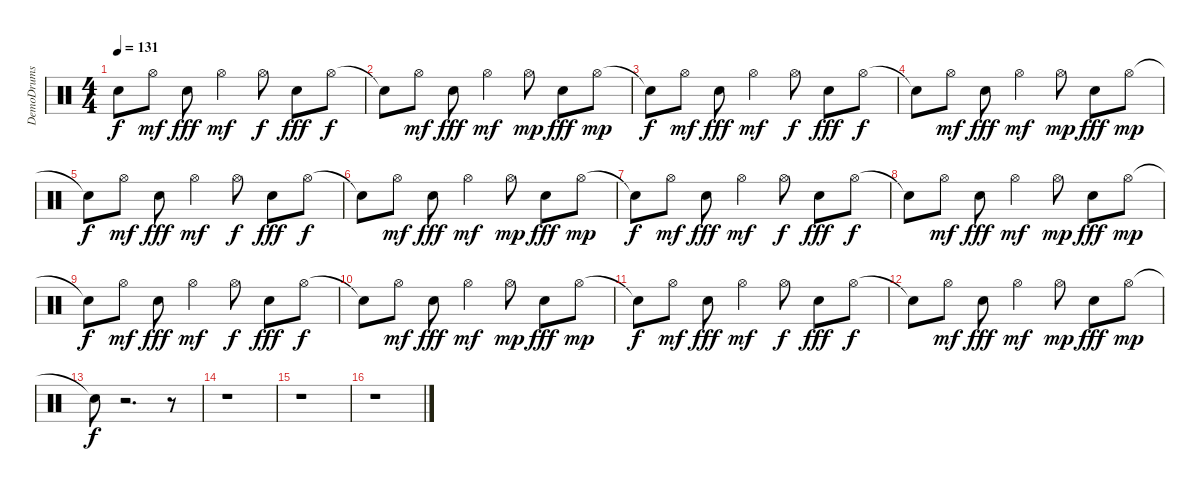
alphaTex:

\track ("DemoDrums" "DemoDrums") {instrument percussion}
\staff {score}
\articulation defaults
\ts (4 4)
\tempo 131
\clef neutral
\ks c "Snare (hit)"{t}.8{dy f} "Hi-Hat (open)".8{dy mf} "Electric Snare (hit)".8{dy fff} "Hi-Hat (open)".4{dy mf} "Hi-Hat (open)".8{dy f} "Electric Snare (hit)".8{dy fff} "Hi-Hat (open)".8{dy f}
|
"Snare (hit)"{t}.8 "Hi-Hat (open)".8{dy mf} "Electric Snare (hit)".8{dy fff} "Hi-Hat (open)".4{dy mf} "Hi-Hat (open)".8{dy mp} "Electric Snare (hit)".8{dy fff} "Hi-Hat (open)".8{dy mp} |
"Snare (hit)"{t}.8{dy f} "Hi-Hat (open)".8{dy mf} "Electric Snare (hit)".8{dy fff} "Hi-Hat (open)".4{dy mf} "Hi-Hat (open)".8{dy f} "Electric Snare (hit)".8{dy fff} "Hi-Hat (open)".8{dy f} |
"Snare (hit)"{t}.8 "Hi-Hat (open)".8{dy mf} "Electric Snare (hit)".8{dy fff} "Hi-Hat (open)".4{dy mf} "Hi-Hat (open)".8{dy mp} "Electric Snare (hit)".8{dy fff} "Hi-Hat (open)".8{dy mp} |
"Snare (hit)"{t}.8{dy f} "Hi-Hat (open)".8{dy mf} "Electric Snare (hit)".8{dy fff} "Hi-Hat (open)".4{dy mf} "Hi-Hat (open)".8{dy f} "Electric Snare (hit)".8{dy fff} "Hi-Hat (open)".8{dy f} |
"Snare (hit)"{t}.8 "Hi-Hat (open)".8{dy mf} "Electric Snare (hit)".8{dy fff} "Hi-Hat (open)".4{dy mf} "Hi-Hat (open)".8{dy mp} "Electric Snare (hit)".8{dy fff} "Hi-Hat (open)".8{dy mp} |
"Snare (hit)"{t}.8{dy f} "Hi-Hat (open)".8{dy mf} "Electric Snare (hit)".8{dy fff} "Hi-Hat (open)".4{dy mf} "Hi-Hat (open)".8{dy f} "Electric Snare (hit)".8{dy fff} "Hi-Hat (open)".8{dy f} |
"Snare (hit)"{t}.8 "Hi-Hat (open)".8{dy mf} "Electric Snare (hit)".8{dy fff} "Hi-Hat (open)".4{dy mf} "Hi-Hat (open)".8{dy mp} "Electric Snare (hit)".8{dy fff} "Hi-Hat (open)".8{dy mp} |
"Snare (hit)"{t}.8{dy f} "Hi-Hat (open)".8{dy mf} "Electric Snare (hit)".8{dy fff} "Hi-Hat (open)".4{dy mf} "Hi-Hat (open)".8{dy f} "Electric Snare (hit)".8{dy fff} "Hi-Hat (open)".8{dy f} |
"Snare (hit)"{t}.8 "Hi-Hat (open)".8{dy mf} "Electric Snare (hit)".8{dy fff} "Hi-Hat (open)".4{dy mf} "Hi-Hat (open)".8{dy mp} "Electric Snare (hit)".8{dy fff} "Hi-Hat (open)".8{dy mp} |
"Snare (hit)"{t}.8{dy f} "Hi-Hat (open)".8{dy mf} "Electric Snare (hit)".8{dy fff} "Hi-Hat (open)".4{dy mf} "Hi-Hat (open)".8{dy f} "Electric Snare (hit)".8{dy fff} "Hi-Hat (open)".8{dy f} |
"Snare (hit)"{t}.8 "Hi-Hat (open)".8{dy mf} "Electric Snare (hit)".8{dy fff} "Hi-Hat (open)".4{dy mf} "Hi-Hat (open)".8{dy mp} "Electric Snare (hit)".8{dy fff} "Hi-Hat (open)".8{dy mp} |
"Snare (hit)"{t}.8{dy f} r.2{d} r.8 |
r.1 |
r.1 |
r.1
